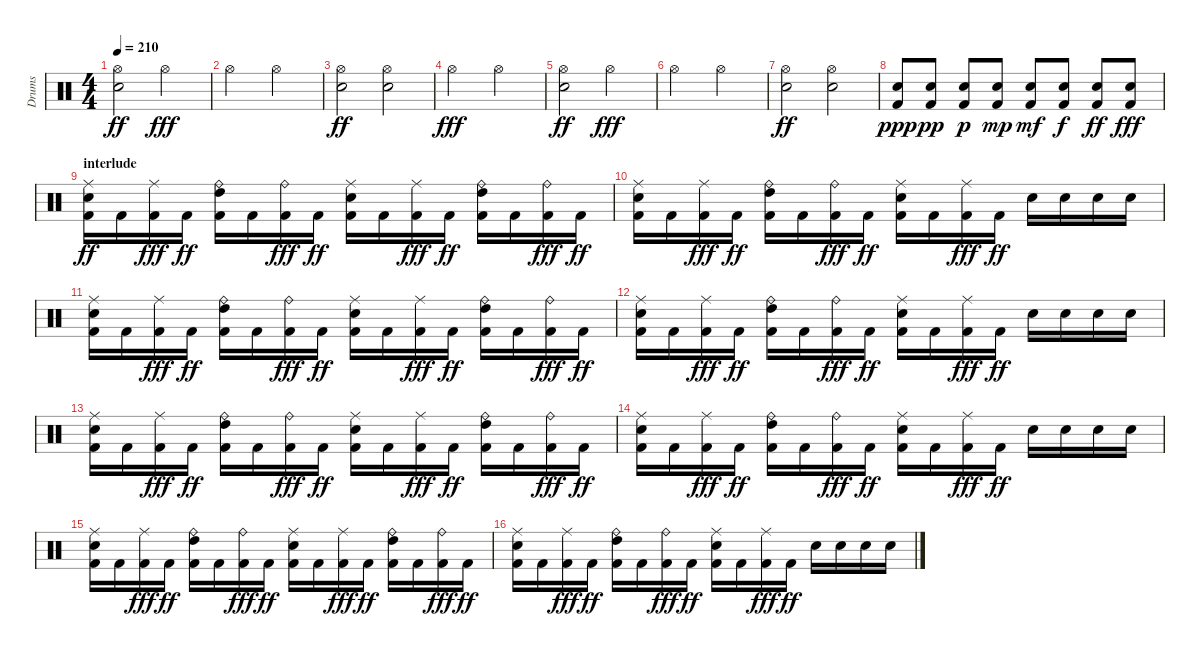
\track ("Drums" "Drums") {instrument percussion}
\staff {score}
\articulation defaults
\ts (4 4)
\tempo 210
\clef neutral
\ks c
("Hi-Hat (open)" "Electric Snare (hit)").2{dy ff} "Hi-Hat (open)".2{dy fff} |
"Hi-Hat (open)".2 "Hi-Hat (open)".2 |
("Hi-Hat (open)" "Electric Snare (hit)").2{dy ff} ("Hi-Hat (open)" "Electric Snare (hit)").2 |
"Hi-Hat (open)".2{dy fff} "Hi-Hat (open)".2 |
("Hi-Hat (open)" "Electric Snare (hit)").2{dy ff} "Hi-Hat (open)".2{dy fff} |
"Hi-Hat (open)".2 "Hi-Hat (open)".2 |
("Hi-Hat (open)" "Electric Snare (hit)").2{dy ff} ("Hi-Hat (open)" "Electric Snare (hit)").2 |
("Electric Snare (hit)" "Kick (hit) 2").8{dy ppp} ("Electric Snare (hit)" "Kick (hit) 2").8{dy pp} ("Electric Snare (hit)" "Kick (hit) 2").8{dy p} ("Electric Snare (hit)" "Kick (hit) 2").8{dy mp} ("Electric Snare (hit)" "Kick (hit) 2").8{dy mf} ("Electric Snare (hit)" "Kick (hit) 2").8{dy f} ("Electric Snare (hit)" "Kick (hit) 2").8{dy ff} ("Electric Snare (hit)" "Kick (hit) 2").8{dy fff} |
\section ("" "interlude")
("Kick (hit) 2" "Ride (middle)" "Electric Snare (hit)").16{dy ff} "Kick (hit) 2".16 ("Kick (hit) 2" "Ride (middle)").16{dy fff} "Kick (hit) 2".16{dy ff} ("Kick (hit) 2" "Ride (bell)" "High Tom (hit)").16 "Kick (hit) 2".16 ("Kick (hit) 2" "Ride (bell)").16{dy fff} "Kick (hit) 2".16{dy ff} ("Kick (hit) 2" "Ride (middle)" "Electric Snare (hit)").16 "Kick (hit) 2".16 ("Kick (hit) 2" "Ride (middle)").16{dy fff} "Kick (hit) 2".16{dy ff} ("Kick (hit) 2" "Ride (bell)" "High Tom (hit)").16 "Kick (hit) 2".16 ("Kick (hit) 2" "Ride (bell)").16{dy fff} "Kick (hit) 2".16{dy ff} |
("Kick (hit) 2" "Ride (middle)" "Electric Snare (hit)").16 "Kick (hit) 2".16 ("Kick (hit) 2" "Ride (middle)").16{dy fff} "Kick (hit) 2".16{dy ff} ("Kick (hit) 2" "Ride (bell)" "High Tom (hit)").16 "Kick (hit) 2".16 ("Kick (hit) 2" "Ride (bell)").16{dy fff} "Kick (hit) 2".16{dy ff} ("Kick (hit) 2" "Ride (middle)" "Electric Snare (hit)").16 "Kick (hit) 2".16 ("Kick (hit) 2" "Ride (middle)").16{dy fff} "Kick (hit) 2".16{dy ff} "Electric Snare (hit)".16 "Electric Snare (hit)".16 "Electric Snare (hit)".16 "Electric Snare (hit)".16 |
("Kick (hit) 2" "Ride (middle)" "Electric Snare (hit)").16 "Kick (hit) 2".16 ("Kick (hit) 2" "Ride (middle)").16{dy fff} "Kick (hit) 2".16{dy ff} ("Kick (hit) 2" "Ride (bell)" "High Tom (hit)").16 "Kick (hit) 2".16 ("Kick (hit) 2" "Ride (bell)").16{dy fff} "Kick (hit) 2".16{dy ff} ("Kick (hit) 2" "Ride (middle)" "Electric Snare (hit)").16 "Kick (hit) 2".16 ("Kick (hit) 2" "Ride (middle)").16{dy fff} "Kick (hit) 2".16{dy ff} ("Kick (hit) 2" "Ride (bell)" "High Tom (hit)").16 "Kick (hit) 2".16 ("Kick (hit) 2" "Ride (bell)").16{dy fff} "Kick (hit) 2".16{dy ff} |
("Kick (hit) 2" "Ride (middle)" "Electric Snare (hit)").16 "Kick (hit) 2".16 ("Kick (hit) 2" "Ride (middle)").16{dy fff} "Kick (hit) 2".16{dy ff} ("Kick (hit) 2" "Ride (bell)" "High Tom (hit)").16 "Kick (hit) 2".16 ("Kick (hit) 2" "Ride (bell)").16{dy fff} "Kick (hit) 2".16{dy ff} ("Kick (hit) 2" "Ride (middle)" "Electric Snare (hit)").16 "Kick (hit) 2".16 ("Kick (hit) 2" "Ride (middle)").16{dy fff} "Kick (hit) 2".16{dy ff} "Electric Snare (hit)".16 "Electric Snare (hit)".16 "Electric Snare (hit)".16 "Electric Snare (hit)".16 |
("Kick (hit) 2" "Ride (middle)" "Electric Snare (hit)").16 "Kick (hit) 2".16 ("Kick (hit) 2" "Ride (middle)").16{dy fff} "Kick (hit) 2".16{dy ff} ("Kick (hit) 2" "Ride (bell)" "High Tom (hit)").16 "Kick (hit) 2".16 ("Kick (hit) 2" "Ride (bell)").16{dy fff} "Kick (hit) 2".16{dy ff} ("Kick (hit) 2" "Ride (middle)" "Electric Snare (hit)").16 "Kick (hit) 2".16 ("Kick (hit) 2" "Ride (middle)").16{dy fff} "Kick (hit) 2".16{dy ff} ("Kick (hit) 2" "Ride (bell)" "High Tom (hit)").16 "Kick (hit) 2".16 ("Kick (hit) 2" "Ride (bell)").16{dy fff} "Kick (hit) 2".16{dy ff} |
("Kick (hit) 2" "Ride (middle)" "Electric Snare (hit)").16 "Kick (hit) 2".16 ("Kick (hit) 2" "Ride (middle)").16{dy fff} "Kick (hit) 2".16{dy ff} ("Kick (hit) 2" "Ride (bell)" "High Tom (hit)").16 "Kick (hit) 2".16 ("Kick (hit) 2" "Ride (bell)").16{dy fff} "Kick (hit) 2".16{dy ff} ("Kick (hit) 2" "Ride (middle)" "Electric Snare (hit)").16 "Kick (hit) 2".16 ("Kick (hit) 2" "Ride (middle)").16{dy fff} "Kick (hit) 2".16{dy ff} "Electric Snare (hit)".16 "Electric Snare (hit)".16 "Electric Snare (hit)".16 "Electric Snare (hit)".16 |
("Kick (hit) 2" "Ride (middle)" "Electric Snare (hit)").16 "Kick (hit) 2".16 ("Kick (hit) 2" "Ride (middle)").16{dy fff} "Kick (hit) 2".16{dy ff} ("Kick (hit) 2" "Ride (bell)" "High Tom (hit)").16 "Kick (hit) 2".16 ("Kick (hit) 2" "Ride (bell)").16{dy fff} "Kick (hit) 2".16{dy ff} ("Kick (hit) 2" "Ride (middle)" "Electric Snare (hit)").16 "Kick (hit) 2".16 ("Kick (hit) 2" "Ride (middle)").16{dy fff} "Kick (hit) 2".16{dy ff} ("Kick (hit) 2" "Ride (bell)" "High Tom (hit)").16 "Kick (hit) 2".16 ("Kick (hit) 2" "Ride (bell)").16{dy fff} "Kick (hit) 2".16{dy ff} |
("Kick (hit) 2" "Ride (middle)" "Electric Snare (hit)").16 "Kick (hit) 2".16 ("Kick (hit) 2" "Ride (middle)").16{dy fff} "Kick (hit) 2".16{dy ff} ("Kick (hit) 2" "Ride (bell)" "High Tom (hit)").16 "Kick (hit) 2".16 ("Kick (hit) 2" "Ride (bell)").16{dy fff} "Kick (hit) 2".16{dy ff} ("Kick (hit) 2" "Ride (middle)" "Electric Snare (hit)").16 "Kick (hit) 2".16 ("Kick (hit) 2" "Ride (middle)").16{dy fff} "Kick (hit) 2".16{dy ff} "Electric Snare (hit)".16 "Electric Snare (hit)".16 "Electric Snare (hit)".16 "Electric Snare (hit)".16
